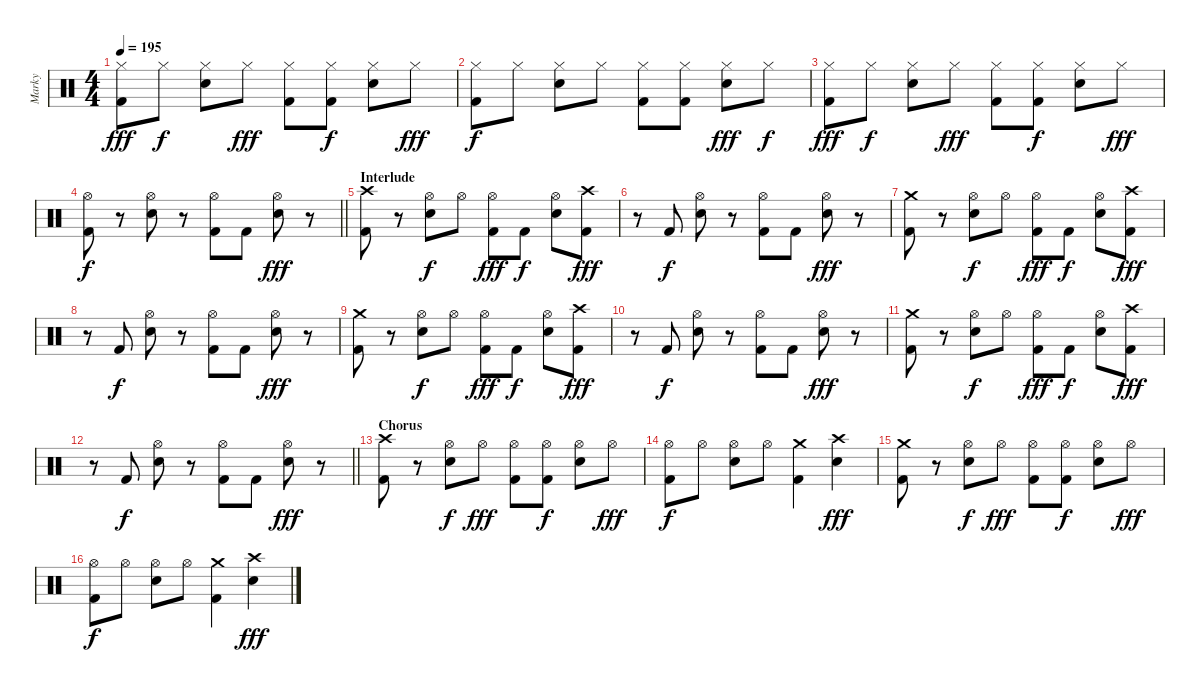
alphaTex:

\track ("Marky" "Marky") {instrument percussion}
\staff {score}
\articulation defaults
\ts (4 4)
\tempo 195
\clef neutral
\ks c
("Hi-Hat (closed)" "Kick (hit) 2").8{dy fff} "Hi-Hat (closed)".8{dy f} ("Hi-Hat (closed)" "Electric Snare (hit)").8 "Hi-Hat (closed)".8{dy fff} ("Hi-Hat (closed)" "Kick (hit) 2").8 ("Hi-Hat (closed)" "Kick (hit) 2").8{dy f} ("Hi-Hat (closed)" "Electric Snare (hit)").8 "Hi-Hat (closed)".8{dy fff} |
("Hi-Hat (closed)" "Kick (hit) 2").8{dy f} "Hi-Hat (closed)".8 ("Hi-Hat (closed)" "Electric Snare (hit)").8 "Hi-Hat (closed)".8 ("Hi-Hat (closed)" "Kick (hit) 2").8 ("Hi-Hat (closed)" "Kick (hit) 2").8 ("Hi-Hat (closed)" "Electric Snare (hit)").8{dy fff} "Hi-Hat (closed)".8{dy f} |
("Hi-Hat (closed)" "Kick (hit) 2").8{dy fff} "Hi-Hat (closed)".8{dy f} ("Hi-Hat (closed)" "Electric Snare (hit)").8 "Hi-Hat (closed)".8{dy fff} ("Hi-Hat (closed)" "Kick (hit) 2").8 ("Hi-Hat (closed)" "Kick (hit) 2").8{dy f} ("Hi-Hat (closed)" "Electric Snare (hit)").8 "Hi-Hat (closed)".8{dy fff} |
\barLineRight lightlight
("Hi-Hat (open)" "Kick (hit) 2").8{dy f} r.8 ("Hi-Hat (open)" "Electric Snare (hit)").8 r.8 ("Hi-Hat (open)" "Kick (hit) 2").8 "Kick (hit) 2".8 ("Hi-Hat (open)" "Electric Snare (hit)").8{dy fff} r.8 |
\section ("" "Interlude")
("Crash high (hit)" "Kick (hit) 2").8 r.8 ("Hi-Hat (open)" "Electric Snare (hit)").8{dy f} "Hi-Hat (open)".8 ("Hi-Hat (open)" "Kick (hit) 2").8{dy fff} "Kick (hit) 2".8{dy f} ("Hi-Hat (open)" "Electric Snare (hit)").8 ("Crash high (hit)" "Kick (hit) 2").8{dy fff} |
r.8 "Kick (hit) 2".8{dy f} ("Hi-Hat (open)" "Electric Snare (hit)").8 r.8 ("Hi-Hat (open)" "Kick (hit) 2").8 "Kick (hit) 2".8 ("Hi-Hat (open)" "Electric Snare (hit)").8{dy fff} r.8 |
("Crash medium (hit)" "Kick (hit) 2").8 r.8 ("Hi-Hat (open)" "Electric Snare (hit)").8{dy f} "Hi-Hat (open)".8 ("Hi-Hat (open)" "Kick (hit) 2").8{dy fff} "Kick (hit) 2".8{dy f} ("Hi-Hat (open)" "Electric Snare (hit)").8 ("Crash high (hit)" "Kick (hit) 2").8{dy fff} |
r.8 "Kick (hit) 2".8{dy f} ("Hi-Hat (open)" "Electric Snare (hit)").8 r.8 ("Hi-Hat (open)" "Kick (hit) 2").8 "Kick (hit) 2".8 ("Hi-Hat (open)" "Electric Snare (hit)").8{dy fff} r.8 |
("Crash medium (hit)" "Kick (hit) 2").8 r.8 ("Hi-Hat (open)" "Electric Snare (hit)").8{dy f} "Hi-Hat (open)".8 ("Hi-Hat (open)" "Kick (hit) 2").8{dy fff} "Kick (hit) 2".8{dy f} ("Hi-Hat (open)" "Electric Snare (hit)").8 ("Crash high (hit)" "Kick (hit) 2").8{dy fff} |
r.8 "Kick (hit) 2".8{dy f} ("Hi-Hat (open)" "Electric Snare (hit)").8 r.8 ("Hi-Hat (open)" "Kick (hit) 2").8 "Kick (hit) 2".8 ("Hi-Hat (open)" "Electric Snare (hit)").8{dy fff} r.8 |
("Crash medium (hit)" "Kick (hit) 2").8 r.8 ("Hi-Hat (open)" "Electric Snare (hit)").8{dy f} "Hi-Hat (open)".8 ("Hi-Hat (open)" "Kick (hit) 2").8{dy fff} "Kick (hit) 2".8{dy f} ("Hi-Hat (open)" "Electric Snare (hit)").8 ("Crash high (hit)" "Kick (hit) 2").8{dy fff} |
\barLineRight lightlight
r.8 "Kick (hit) 2".8{dy f} ("Hi-Hat (open)" "Electric Snare (hit)").8 r.8 ("Hi-Hat (open)" "Kick (hit) 2").8 "Kick (hit) 2".8 ("Hi-Hat (open)" "Electric Snare (hit)").8{dy fff} r.8 |
\section ("" "Chorus")
("Crash high (hit)" "Kick (hit) 2").8 r.8 ("Hi-Hat (open)" "Electric Snare (hit)").8{dy f} "Hi-Hat (open)".8{dy fff} ("Hi-Hat (open)" "Kick (hit) 2").8 ("Hi-Hat (open)" "Kick (hit) 2").8{dy f} ("Hi-Hat (open)" "Electric Snare (hit)").8 "Hi-Hat (open)".8{dy fff} |
("Hi-Hat (open)" "Kick (hit) 2").8{dy f} "Hi-Hat (open)".8 ("Hi-Hat (open)" "Electric Snare (hit)").8 "Hi-Hat (open)".8 ("Crash medium (hit)" "Kick (hit) 2").4 ("Crash high (hit)" "Electric Snare (hit)").4{dy fff} |
("Crash medium (hit)" "Kick (hit) 2").8 r.8 ("Hi-Hat (open)" "Electric Snare (hit)").8{dy f} "Hi-Hat (open)".8{dy fff} ("Hi-Hat (open)" "Kick (hit) 2").8 ("Hi-Hat (open)" "Kick (hit) 2").8{dy f} ("Hi-Hat (open)" "Electric Snare (hit)").8 "Hi-Hat (open)".8{dy fff} |
("Hi-Hat (open)" "Kick (hit) 2").8{dy f} "Hi-Hat (open)".8 ("Hi-Hat (open)" "Electric Snare (hit)").8 "Hi-Hat (open)".8 ("Crash medium (hit)" "Kick (hit) 2").4 ("Crash high (hit)" "Electric Snare (hit)").4{dy fff}
